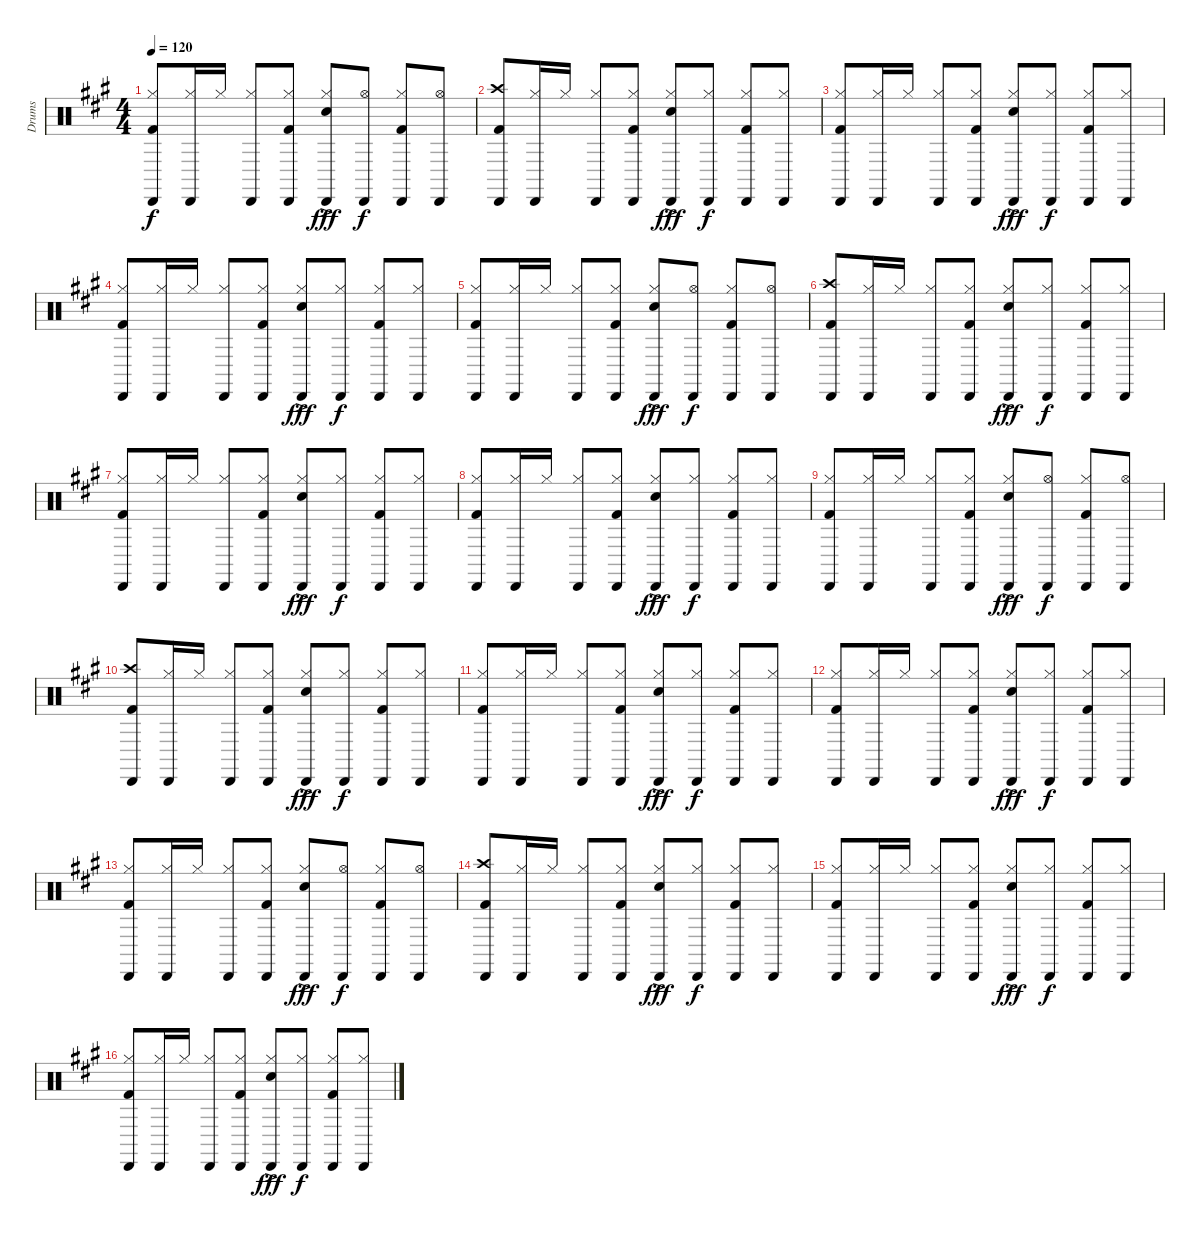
\track ("Drums" "Drums") {instrument percussion}
\staff {score}
\articulation defaults
\ts (4 4)
\tempo 120
\clef neutral
\ks a
("Hi-Hat (closed)" "Kick (hit) 2" "Cabasa (hit)").8{dy f} ("Hi-Hat (closed)" "Cabasa (hit)").16 "Hi-Hat (closed)".16 ("Hi-Hat (closed)" "Cabasa (hit)").8 ("Hi-Hat (closed)" "Kick (hit) 2" "Cabasa (hit)").8 ("Hi-Hat (closed)" "Snare (hit) 2" "Cabasa (hit)"{ac}).8{dy fff} ("Hi-Hat (open)" "Cabasa (hit)").8{dy f} ("Hi-Hat (closed)" "Kick (hit) 2" "Cabasa (hit)").8 ("Hi-Hat (open)" "Cabasa (hit)").8 |
("Crash high (hit)" "Kick (hit) 2" "Cabasa (hit)").8 ("Hi-Hat (closed)" "Cabasa (hit)").16 "Hi-Hat (closed)".16 ("Hi-Hat (closed)" "Cabasa (hit)").8 ("Hi-Hat (closed)" "Kick (hit) 2" "Cabasa (hit)").8 ("Hi-Hat (closed)" "Snare (hit) 2" "Cabasa (hit)"{ac}).8{dy fff} ("Hi-Hat (closed)" "Cabasa (hit)").8{dy f} ("Hi-Hat (closed)" "Kick (hit) 2" "Cabasa (hit)").8 ("Hi-Hat (closed)" "Cabasa (hit)").8 |
("Hi-Hat (closed)" "Kick (hit) 2" "Cabasa (hit)").8 ("Hi-Hat (closed)" "Cabasa (hit)").16 "Hi-Hat (closed)".16 ("Hi-Hat (closed)" "Cabasa (hit)").8 ("Hi-Hat (closed)" "Kick (hit) 2" "Cabasa (hit)").8 ("Hi-Hat (closed)" "Snare (hit) 2" "Cabasa (hit)"{ac}).8{dy fff} ("Hi-Hat (closed)" "Cabasa (hit)").8{dy f} ("Hi-Hat (closed)" "Kick (hit) 2" "Cabasa (hit)").8 ("Hi-Hat (closed)" "Cabasa (hit)").8 |
("Hi-Hat (closed)" "Kick (hit) 2" "Cabasa (hit)").8 ("Hi-Hat (closed)" "Cabasa (hit)").16 "Hi-Hat (closed)".16 ("Hi-Hat (closed)" "Cabasa (hit)").8 ("Hi-Hat (closed)" "Kick (hit) 2" "Cabasa (hit)").8 ("Hi-Hat (closed)" "Snare (hit) 2" "Cabasa (hit)"{ac}).8{dy fff} ("Hi-Hat (closed)" "Cabasa (hit)").8{dy f} ("Hi-Hat (closed)" "Kick (hit) 2" "Cabasa (hit)").8 ("Hi-Hat (closed)" "Cabasa (hit)").8 |
("Hi-Hat (closed)" "Kick (hit) 2" "Cabasa (hit)").8 ("Hi-Hat (closed)" "Cabasa (hit)").16 "Hi-Hat (closed)".16 ("Hi-Hat (closed)" "Cabasa (hit)").8 ("Hi-Hat (closed)" "Kick (hit) 2" "Cabasa (hit)").8 ("Hi-Hat (closed)" "Snare (hit) 2" "Cabasa (hit)"{ac}).8{dy fff} ("Hi-Hat (open)" "Cabasa (hit)").8{dy f} ("Hi-Hat (closed)" "Kick (hit) 2" "Cabasa (hit)").8 ("Hi-Hat (open)" "Cabasa (hit)").8 |
("Crash high (hit)" "Kick (hit) 2" "Cabasa (hit)").8 ("Hi-Hat (closed)" "Cabasa (hit)").16 "Hi-Hat (closed)".16 ("Hi-Hat (closed)" "Cabasa (hit)").8 ("Hi-Hat (closed)" "Kick (hit) 2" "Cabasa (hit)").8 ("Hi-Hat (closed)" "Snare (hit) 2" "Cabasa (hit)"{ac}).8{dy fff} ("Hi-Hat (closed)" "Cabasa (hit)").8{dy f} ("Hi-Hat (closed)" "Kick (hit) 2" "Cabasa (hit)").8 ("Hi-Hat (closed)" "Cabasa (hit)").8 |
("Hi-Hat (closed)" "Kick (hit) 2" "Cabasa (hit)").8 ("Hi-Hat (closed)" "Cabasa (hit)").16 "Hi-Hat (closed)".16 ("Hi-Hat (closed)" "Cabasa (hit)").8 ("Hi-Hat (closed)" "Kick (hit) 2" "Cabasa (hit)").8 ("Hi-Hat (closed)" "Snare (hit) 2" "Cabasa (hit)"{ac}).8{dy fff} ("Hi-Hat (closed)" "Cabasa (hit)").8{dy f} ("Hi-Hat (closed)" "Kick (hit) 2" "Cabasa (hit)").8 ("Hi-Hat (closed)" "Cabasa (hit)").8 |
("Hi-Hat (closed)" "Kick (hit) 2" "Cabasa (hit)").8 ("Hi-Hat (closed)" "Cabasa (hit)").16 "Hi-Hat (closed)".16 ("Hi-Hat (closed)" "Cabasa (hit)").8 ("Hi-Hat (closed)" "Kick (hit) 2" "Cabasa (hit)").8 ("Hi-Hat (closed)" "Snare (hit) 2" "Cabasa (hit)"{ac}).8{dy fff} ("Hi-Hat (closed)" "Cabasa (hit)").8{dy f} ("Hi-Hat (closed)" "Kick (hit) 2" "Cabasa (hit)").8 ("Hi-Hat (closed)" "Cabasa (hit)").8 |
("Hi-Hat (closed)" "Kick (hit) 2" "Cabasa (hit)").8 ("Hi-Hat (closed)" "Cabasa (hit)").16 "Hi-Hat (closed)".16 ("Hi-Hat (closed)" "Cabasa (hit)").8 ("Hi-Hat (closed)" "Kick (hit) 2" "Cabasa (hit)").8 ("Hi-Hat (closed)" "Snare (hit) 2" "Cabasa (hit)"{ac}).8{dy fff} ("Hi-Hat (open)" "Cabasa (hit)").8{dy f} ("Hi-Hat (closed)" "Kick (hit) 2" "Cabasa (hit)").8 ("Hi-Hat (open)" "Cabasa (hit)").8 |
("Crash high (hit)" "Kick (hit) 2" "Cabasa (hit)").8 ("Hi-Hat (closed)" "Cabasa (hit)").16 "Hi-Hat (closed)".16 ("Hi-Hat (closed)" "Cabasa (hit)").8 ("Hi-Hat (closed)" "Kick (hit) 2" "Cabasa (hit)").8 ("Hi-Hat (closed)" "Snare (hit) 2" "Cabasa (hit)"{ac}).8{dy fff} ("Hi-Hat (closed)" "Cabasa (hit)").8{dy f} ("Hi-Hat (closed)" "Kick (hit) 2" "Cabasa (hit)").8 ("Hi-Hat (closed)" "Cabasa (hit)").8 |
("Hi-Hat (closed)" "Kick (hit) 2" "Cabasa (hit)").8 ("Hi-Hat (closed)" "Cabasa (hit)").16 "Hi-Hat (closed)".16 ("Hi-Hat (closed)" "Cabasa (hit)").8 ("Hi-Hat (closed)" "Kick (hit) 2" "Cabasa (hit)").8 ("Hi-Hat (closed)" "Snare (hit) 2" "Cabasa (hit)"{ac}).8{dy fff} ("Hi-Hat (closed)" "Cabasa (hit)").8{dy f} ("Hi-Hat (closed)" "Kick (hit) 2" "Cabasa (hit)").8 ("Hi-Hat (closed)" "Cabasa (hit)").8 |
("Hi-Hat (closed)" "Kick (hit) 2" "Cabasa (hit)").8 ("Hi-Hat (closed)" "Cabasa (hit)").16 "Hi-Hat (closed)".16 ("Hi-Hat (closed)" "Cabasa (hit)").8 ("Hi-Hat (closed)" "Kick (hit) 2" "Cabasa (hit)").8 ("Hi-Hat (closed)" "Snare (hit) 2" "Cabasa (hit)"{ac}).8{dy fff} ("Hi-Hat (closed)" "Cabasa (hit)").8{dy f} ("Hi-Hat (closed)" "Kick (hit) 2" "Cabasa (hit)").8 ("Hi-Hat (closed)" "Cabasa (hit)").8 |
("Hi-Hat (closed)" "Kick (hit) 2" "Cabasa (hit)").8 ("Hi-Hat (closed)" "Cabasa (hit)").16 "Hi-Hat (closed)".16 ("Hi-Hat (closed)" "Cabasa (hit)").8 ("Hi-Hat (closed)" "Kick (hit) 2" "Cabasa (hit)").8 ("Hi-Hat (closed)" "Snare (hit) 2" "Cabasa (hit)"{ac}).8{dy fff} ("Hi-Hat (open)" "Cabasa (hit)").8{dy f} ("Hi-Hat (closed)" "Kick (hit) 2" "Cabasa (hit)").8 ("Hi-Hat (open)" "Cabasa (hit)").8 |
("Crash high (hit)" "Kick (hit) 2" "Cabasa (hit)").8 ("Hi-Hat (closed)" "Cabasa (hit)").16 "Hi-Hat (closed)".16 ("Hi-Hat (closed)" "Cabasa (hit)").8 ("Hi-Hat (closed)" "Kick (hit) 2" "Cabasa (hit)").8 ("Hi-Hat (closed)" "Snare (hit) 2" "Cabasa (hit)"{ac}).8{dy fff} ("Hi-Hat (closed)" "Cabasa (hit)").8{dy f} ("Hi-Hat (closed)" "Kick (hit) 2" "Cabasa (hit)").8 ("Hi-Hat (closed)" "Cabasa (hit)").8 |
("Hi-Hat (closed)" "Kick (hit) 2" "Cabasa (hit)").8 ("Hi-Hat (closed)" "Cabasa (hit)").16 "Hi-Hat (closed)".16 ("Hi-Hat (closed)" "Cabasa (hit)").8 ("Hi-Hat (closed)" "Kick (hit) 2" "Cabasa (hit)").8 ("Hi-Hat (closed)" "Snare (hit) 2" "Cabasa (hit)"{ac}).8{dy fff} ("Hi-Hat (closed)" "Cabasa (hit)").8{dy f} ("Hi-Hat (closed)" "Kick (hit) 2" "Cabasa (hit)").8 ("Hi-Hat (closed)" "Cabasa (hit)").8 |
("Hi-Hat (closed)" "Kick (hit) 2" "Cabasa (hit)").8 ("Hi-Hat (closed)" "Cabasa (hit)").16 "Hi-Hat (closed)".16 ("Hi-Hat (closed)" "Cabasa (hit)").8 ("Hi-Hat (closed)" "Kick (hit) 2" "Cabasa (hit)").8 ("Hi-Hat (closed)" "Snare (hit) 2" "Cabasa (hit)"{ac}).8{dy fff} ("Hi-Hat (closed)" "Cabasa (hit)").8{dy f} ("Hi-Hat (closed)" "Kick (hit) 2" "Cabasa (hit)").8 ("Hi-Hat (closed)" "Cabasa (hit)").8
